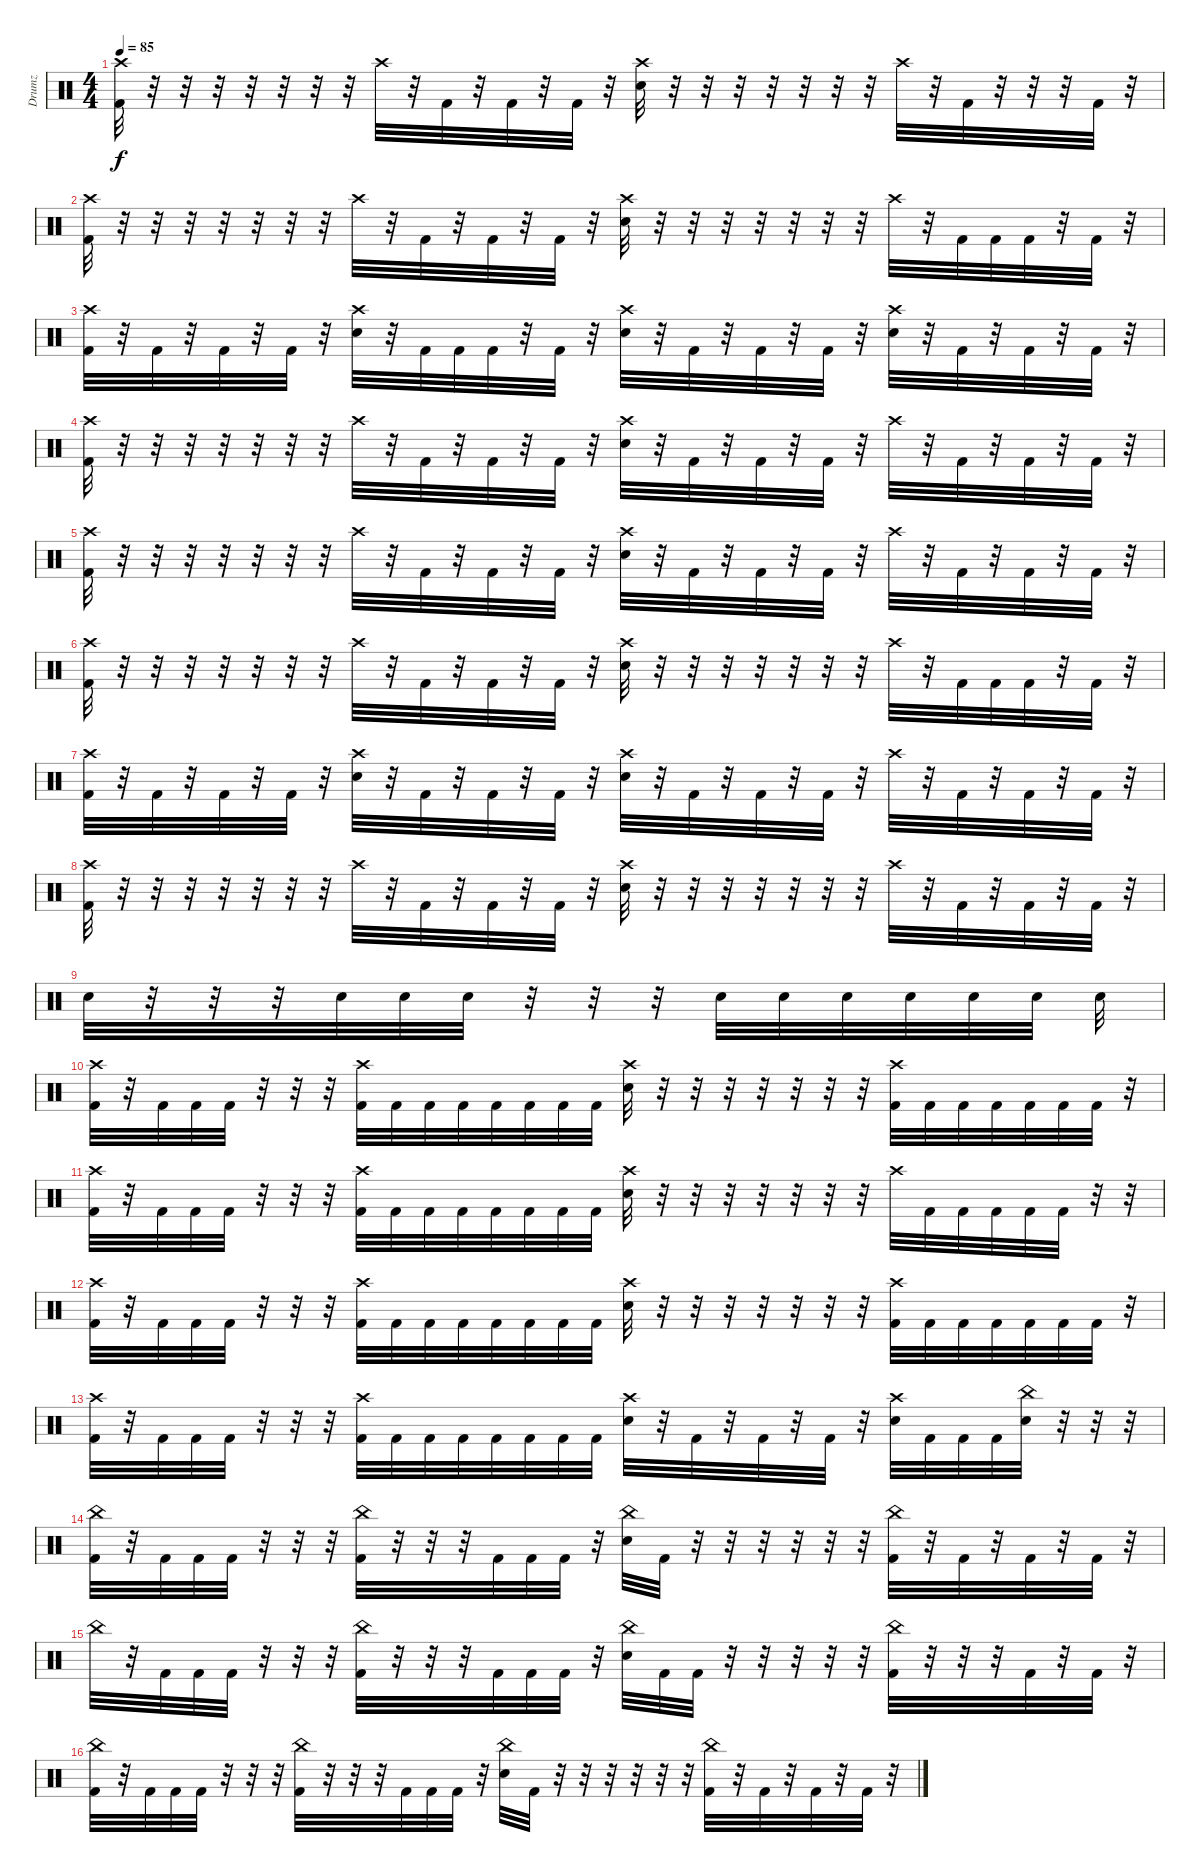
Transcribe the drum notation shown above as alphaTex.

\track ("Drumz" "Drumz") {instrument percussion}
\staff {score}
\articulation defaults
\ts (4 4)
\tempo 85
\clef neutral
\ks c
("Crash high (hit)" "Kick (hit) 2").32{dy f} r.32 r.32 r.32 r.32 r.32 r.32 r.32 "Crash high (hit)".32 r.32 "Kick (hit) 2".32 r.32 "Kick (hit) 2".32 r.32 "Kick (hit) 2".32 r.32 ("Crash high (hit)" "Snare (hit) 2").32 r.32 r.32 r.32 r.32 r.32 r.32 r.32 "Crash high (hit)".32 r.32 "Kick (hit) 2".32 r.32 r.32 r.32 "Kick (hit) 2".32 r.32 |
("Crash high (hit)" "Kick (hit) 2").32 r.32 r.32 r.32 r.32 r.32 r.32 r.32 "Crash high (hit)".32 r.32 "Kick (hit) 2".32 r.32 "Kick (hit) 2".32 r.32 "Kick (hit) 2".32 r.32 ("Crash high (hit)" "Snare (hit) 2").32 r.32 r.32 r.32 r.32 r.32 r.32 r.32 "Crash high (hit)".32 r.32 "Kick (hit) 2".32 "Kick (hit) 2".32 "Kick (hit) 2".32 r.32 "Kick (hit) 2".32 r.32 |
("Crash high (hit)" "Kick (hit) 2").32 r.32 "Kick (hit) 2".32 r.32 "Kick (hit) 2".32 r.32 "Kick (hit) 2".32 r.32 ("Crash high (hit)" "Snare (hit) 2").32 r.32 "Kick (hit) 2".32 "Kick (hit) 2".32 "Kick (hit) 2".32 r.32 "Kick (hit) 2".32 r.32 ("Crash high (hit)" "Snare (hit) 2").32 r.32 "Kick (hit) 2".32 r.32 "Kick (hit) 2".32 r.32 "Kick (hit) 2".32 r.32 ("Crash high (hit)" "Snare (hit) 2").32 r.32 "Kick (hit) 2".32 r.32 "Kick (hit) 2".32 r.32 "Kick (hit) 2".32 r.32 |
("Crash high (hit)" "Kick (hit) 2").32 r.32 r.32 r.32 r.32 r.32 r.32 r.32 "Crash high (hit)".32 r.32 "Kick (hit) 2".32 r.32 "Kick (hit) 2".32 r.32 "Kick (hit) 2".32 r.32 ("Crash high (hit)" "Snare (hit) 2").32 r.32 "Kick (hit) 2".32 r.32 "Kick (hit) 2".32 r.32 "Kick (hit) 2".32 r.32 "Crash high (hit)".32 r.32 "Kick (hit) 2".32 r.32 "Kick (hit) 2".32 r.32 "Kick (hit) 2".32 r.32 |
("Crash high (hit)" "Kick (hit) 2").32 r.32 r.32 r.32 r.32 r.32 r.32 r.32 "Crash high (hit)".32 r.32 "Kick (hit) 2".32 r.32 "Kick (hit) 2".32 r.32 "Kick (hit) 2".32 r.32 ("Crash high (hit)" "Snare (hit) 2").32 r.32 "Kick (hit) 2".32 r.32 "Kick (hit) 2".32 r.32 "Kick (hit) 2".32 r.32 "Crash high (hit)".32 r.32 "Kick (hit) 2".32 r.32 "Kick (hit) 2".32 r.32 "Kick (hit) 2".32 r.32 |
("Crash high (hit)" "Kick (hit) 2").32 r.32 r.32 r.32 r.32 r.32 r.32 r.32 "Crash high (hit)".32 r.32 "Kick (hit) 2".32 r.32 "Kick (hit) 2".32 r.32 "Kick (hit) 2".32 r.32 ("Crash high (hit)" "Snare (hit) 2").32 r.32 r.32 r.32 r.32 r.32 r.32 r.32 "Crash high (hit)".32 r.32 "Kick (hit) 2".32 "Kick (hit) 2".32 "Kick (hit) 2".32 r.32 "Kick (hit) 2".32 r.32 |
("Crash high (hit)" "Kick (hit) 2").32 r.32 "Kick (hit) 2".32 r.32 "Kick (hit) 2".32 r.32 "Kick (hit) 2".32 r.32 ("Crash high (hit)" "Snare (hit) 2").32 r.32 "Kick (hit) 2".32 r.32 "Kick (hit) 2".32 r.32 "Kick (hit) 2".32 r.32 ("Crash high (hit)" "Snare (hit) 2").32 r.32 "Kick (hit) 2".32 r.32 "Kick (hit) 2".32 r.32 "Kick (hit) 2".32 r.32 "Crash high (hit)".32 r.32 "Kick (hit) 2".32 r.32 "Kick (hit) 2".32 r.32 "Kick (hit) 2".32 r.32 |
("Crash high (hit)" "Kick (hit) 2").32 r.32 r.32 r.32 r.32 r.32 r.32 r.32 "Crash high (hit)".32 r.32 "Kick (hit) 2".32 r.32 "Kick (hit) 2".32 r.32 "Kick (hit) 2".32 r.32 ("Crash high (hit)" "Snare (hit) 2").32 r.32 r.32 r.32 r.32 r.32 r.32 r.32 "Crash high (hit)".32 r.32 "Kick (hit) 2".32 r.32 "Kick (hit) 2".32 r.32 "Kick (hit) 2".32 r.32 |
"Snare (hit) 2".32 r.32 r.32 r.32 "Snare (hit) 2".32 "Snare (hit) 2".32 "Snare (hit) 2".32 r.32 r.32 r.32 "Snare (hit) 2".32 "Snare (hit) 2".32 "Snare (hit) 2".32 "Snare (hit) 2".32 "Snare (hit) 2".32 "Snare (hit) 2".32 "Snare (hit) 2".32 |
("Crash high (hit)" "Kick (hit) 2").32 r.32 "Kick (hit) 2".32 "Kick (hit) 2".32 "Kick (hit) 2".32 r.32 r.32 r.32 ("Crash high (hit)" "Kick (hit) 2").32 "Kick (hit) 2".32 "Kick (hit) 2".32 "Kick (hit) 2".32 "Kick (hit) 2".32 "Kick (hit) 2".32 "Kick (hit) 2".32 "Kick (hit) 2".32 ("Crash high (hit)" "Snare (hit) 2").32 r.32 r.32 r.32 r.32 r.32 r.32 r.32 ("Crash high (hit)" "Kick (hit) 2").32 "Kick (hit) 2".32 "Kick (hit) 2".32 "Kick (hit) 2".32 "Kick (hit) 2".32 "Kick (hit) 2".32 "Kick (hit) 2".32 r.32 |
("Crash high (hit)" "Kick (hit) 2").32 r.32 "Kick (hit) 2".32 "Kick (hit) 2".32 "Kick (hit) 2".32 r.32 r.32 r.32 ("Crash high (hit)" "Kick (hit) 2").32 "Kick (hit) 2".32 "Kick (hit) 2".32 "Kick (hit) 2".32 "Kick (hit) 2".32 "Kick (hit) 2".32 "Kick (hit) 2".32 "Kick (hit) 2".32 ("Crash high (hit)" "Snare (hit) 2").32 r.32 r.32 r.32 r.32 r.32 r.32 r.32 "Crash high (hit)".32 "Kick (hit) 2".32 "Kick (hit) 2".32 "Kick (hit) 2".32 "Kick (hit) 2".32 "Kick (hit) 2".32 r.32 r.32 |
("Crash high (hit)" "Kick (hit) 2").32 r.32 "Kick (hit) 2".32 "Kick (hit) 2".32 "Kick (hit) 2".32 r.32 r.32 r.32 ("Crash high (hit)" "Kick (hit) 2").32 "Kick (hit) 2".32 "Kick (hit) 2".32 "Kick (hit) 2".32 "Kick (hit) 2".32 "Kick (hit) 2".32 "Kick (hit) 2".32 "Kick (hit) 2".32 ("Crash high (hit)" "Snare (hit) 2").32 r.32 r.32 r.32 r.32 r.32 r.32 r.32 ("Crash high (hit)" "Kick (hit) 2").32 "Kick (hit) 2".32 "Kick (hit) 2".32 "Kick (hit) 2".32 "Kick (hit) 2".32 "Kick (hit) 2".32 "Kick (hit) 2".32 r.32 |
("Crash high (hit)" "Kick (hit) 2").32 r.32 "Kick (hit) 2".32 "Kick (hit) 2".32 "Kick (hit) 2".32 r.32 r.32 r.32 ("Crash high (hit)" "Kick (hit) 2").32 "Kick (hit) 2".32 "Kick (hit) 2".32 "Kick (hit) 2".32 "Kick (hit) 2".32 "Kick (hit) 2".32 "Kick (hit) 2".32 "Kick (hit) 2".32 ("Crash high (hit)" "Snare (hit) 2").32 r.32 "Kick (hit) 2".32 r.32 "Kick (hit) 2".32 r.32 "Kick (hit) 2".32 r.32 ("Crash high (hit)" "Snare (hit) 2").32 "Kick (hit) 2".32 "Kick (hit) 2".32 "Kick (hit) 2".32 ("China (hit)" "Snare (hit) 2").32 r.32 r.32 r.32 |
("China (hit)" "Kick (hit) 2").32 r.32 "Kick (hit) 2".32 "Kick (hit) 2".32 "Kick (hit) 2".32 r.32 r.32 r.32 ("China (hit)" "Kick (hit) 2").32 r.32 r.32 r.32 "Kick (hit) 2".32 "Kick (hit) 2".32 "Kick (hit) 2".32 r.32 ("China (hit)" "Snare (hit) 2").32 "Kick (hit) 2".32 r.32 r.32 r.32 r.32 r.32 r.32 ("China (hit)" "Kick (hit) 2").32 r.32 "Kick (hit) 2".32 r.32 "Kick (hit) 2".32 r.32 "Kick (hit) 2".32 r.32 |
"China (hit)".32 r.32 "Kick (hit) 2".32 "Kick (hit) 2".32 "Kick (hit) 2".32 r.32 r.32 r.32 ("China (hit)" "Kick (hit) 2").32 r.32 r.32 r.32 "Kick (hit) 2".32 "Kick (hit) 2".32 "Kick (hit) 2".32 r.32 ("China (hit)" "Snare (hit) 2").32 "Kick (hit) 2".32 "Kick (hit) 2".32 r.32 r.32 r.32 r.32 r.32 ("China (hit)" "Kick (hit) 2").32 r.32 r.32 r.32 "Kick (hit) 2".32 r.32 "Kick (hit) 2".32 r.32 |
("China (hit)" "Kick (hit) 2").32 r.32 "Kick (hit) 2".32 "Kick (hit) 2".32 "Kick (hit) 2".32 r.32 r.32 r.32 ("China (hit)" "Kick (hit) 2").32 r.32 r.32 r.32 "Kick (hit) 2".32 "Kick (hit) 2".32 "Kick (hit) 2".32 r.32 ("China (hit)" "Snare (hit) 2").32 "Kick (hit) 2".32 r.32 r.32 r.32 r.32 r.32 r.32 ("China (hit)" "Kick (hit) 2").32 r.32 "Kick (hit) 2".32 r.32 "Kick (hit) 2".32 r.32 "Kick (hit) 2".32 r.32
